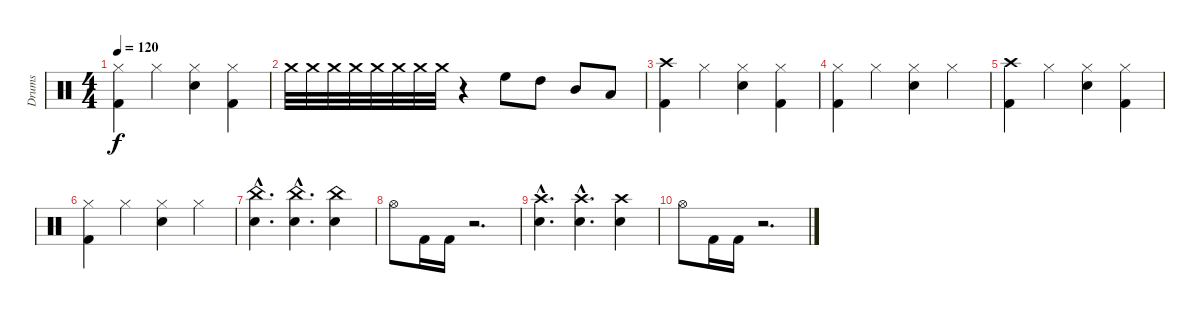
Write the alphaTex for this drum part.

\track ("Drums" "Drums") {instrument percussion}
\staff {score}
\articulation defaults
\ts (4 4)
\tempo 120
\clef neutral
\ks c
("Hi-Hat (closed)" "Kick (hit) 2").4{dy f} "Hi-Hat (closed)".4 ("Hi-Hat (closed)" "Electric Snare (hit)").4 ("Hi-Hat (closed)" "Kick (hit) 2").4 |
"Crash medium (hit)".32 "Crash medium (hit)".32 "Crash medium (hit)".32 "Crash medium (hit)".32 "Crash medium (hit)".32 "Crash medium (hit)".32 "Crash medium (hit)".32 "Crash medium (hit)".32 r.4 "High Floor Tom (hit)".8 "High Tom (hit)".8 "Mid Tom (hit)".8 "Low Tom (hit)".8 |
("Crash high (hit)" "Kick (hit) 2").4 "Hi-Hat (closed)".4 ("Hi-Hat (closed)" "Electric Snare (hit)").4 ("Hi-Hat (closed)" "Kick (hit) 2").4 |
("Hi-Hat (closed)" "Kick (hit) 2").4 "Hi-Hat (closed)".4 ("Hi-Hat (closed)" "Electric Snare (hit)").4 "Hi-Hat (closed)".4 |
("Crash high (hit)" "Kick (hit) 2").4 "Hi-Hat (closed)".4 ("Hi-Hat (closed)" "Electric Snare (hit)").4 ("Hi-Hat (closed)" "Kick (hit) 2").4 |
("Hi-Hat (closed)" "Kick (hit) 2").4 "Hi-Hat (closed)".4 ("Hi-Hat (closed)" "Electric Snare (hit)").4 "Hi-Hat (closed)".4 |
("China (hit)"{hac} "Electric Snare (hit)"{hac}).4{d} ("China (hit)"{hac} "Electric Snare (hit)"{hac}).4{d} ("China (hit)" "Electric Snare (hit)").4 |
"Hi-Hat (open)".8 "Kick (hit) 2".16 "Kick (hit) 2".16 r.2{d} |
("Crash high (hit)"{hac} "Electric Snare (hit)"{hac}).4{d} ("Crash high (hit)"{hac} "Electric Snare (hit)"{hac}).4{d} ("Crash high (hit)" "Electric Snare (hit)").4 |
"Hi-Hat (open)".8 "Kick (hit) 2".16 "Kick (hit) 2".16 r.2{d}
